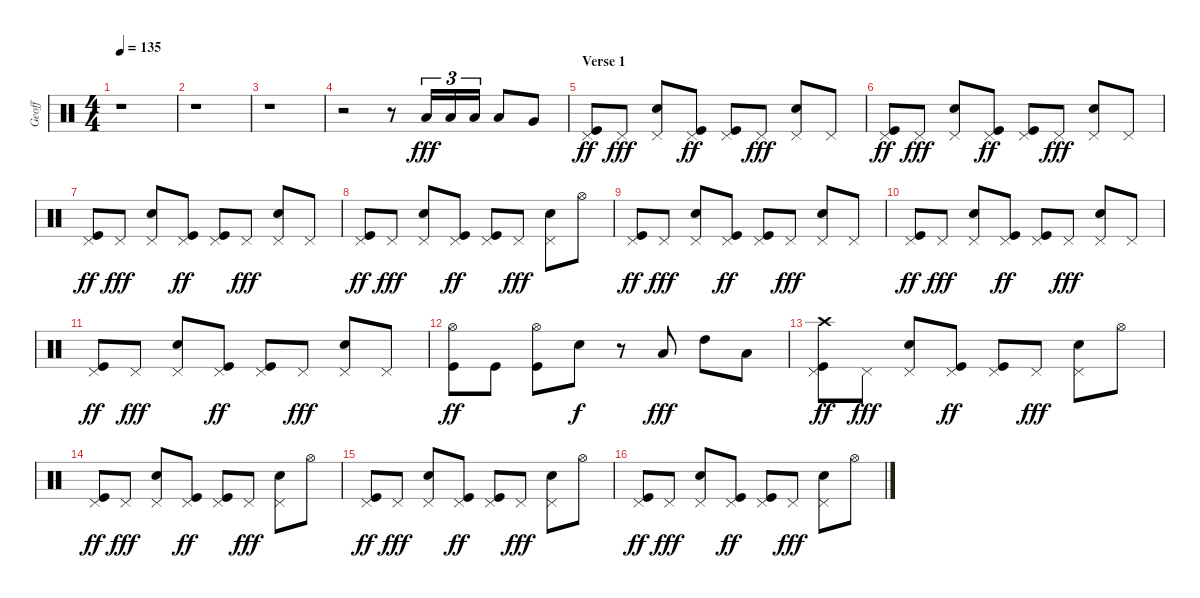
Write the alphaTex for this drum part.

\track ("Geoff" "Geoff") {instrument percussion}
\staff {score}
\articulation defaults
\ts (4 4)
\tempo 135
\clef neutral
\ks c
r.1{dy fff} |
r.1 |
r.1 |
r.2 r.8 "Low Tom (hit)".16{tu (3 2)} "Low Tom (hit)".16{tu (3 2)} "Low Tom (hit)".16{tu (3 2)} "Low Tom (hit)".8 "Very Low Tom (hit)".8 |
\section ("" "Verse 1")
("Pedal Hi-Hat (hit)" "Kick (hit)").8{dy ff} "Pedal Hi-Hat (hit)".8{dy fff} ("Pedal Hi-Hat (hit)" "Electric Snare (hit)").8 ("Pedal Hi-Hat (hit)" "Kick (hit)").8{dy ff} ("Pedal Hi-Hat (hit)" "Kick (hit)").8 "Pedal Hi-Hat (hit)".8{dy fff} ("Pedal Hi-Hat (hit)" "Electric Snare (hit)").8 "Pedal Hi-Hat (hit)".8 |
("Pedal Hi-Hat (hit)" "Kick (hit)").8{dy ff} "Pedal Hi-Hat (hit)".8{dy fff} ("Pedal Hi-Hat (hit)" "Electric Snare (hit)").8 ("Pedal Hi-Hat (hit)" "Kick (hit)").8{dy ff} ("Pedal Hi-Hat (hit)" "Kick (hit)").8 "Pedal Hi-Hat (hit)".8{dy fff} ("Pedal Hi-Hat (hit)" "Electric Snare (hit)").8 "Pedal Hi-Hat (hit)".8 |
("Pedal Hi-Hat (hit)" "Kick (hit)").8{dy ff} "Pedal Hi-Hat (hit)".8{dy fff} ("Pedal Hi-Hat (hit)" "Electric Snare (hit)").8 ("Pedal Hi-Hat (hit)" "Kick (hit)").8{dy ff} ("Pedal Hi-Hat (hit)" "Kick (hit)").8 "Pedal Hi-Hat (hit)".8{dy fff} ("Pedal Hi-Hat (hit)" "Electric Snare (hit)").8 "Pedal Hi-Hat (hit)".8 |
("Pedal Hi-Hat (hit)" "Kick (hit)").8{dy ff} "Pedal Hi-Hat (hit)".8{dy fff} ("Pedal Hi-Hat (hit)" "Electric Snare (hit)").8 ("Pedal Hi-Hat (hit)" "Kick (hit)").8{dy ff} ("Pedal Hi-Hat (hit)" "Kick (hit)").8 "Pedal Hi-Hat (hit)".8{dy fff} ("Pedal Hi-Hat (hit)" "Electric Snare (hit)").8 "Hi-Hat (open)".8 |
("Pedal Hi-Hat (hit)" "Kick (hit)").8{dy ff} "Pedal Hi-Hat (hit)".8{dy fff} ("Pedal Hi-Hat (hit)" "Electric Snare (hit)").8 ("Pedal Hi-Hat (hit)" "Kick (hit)").8{dy ff} ("Pedal Hi-Hat (hit)" "Kick (hit)").8 "Pedal Hi-Hat (hit)".8{dy fff} ("Pedal Hi-Hat (hit)" "Electric Snare (hit)").8 "Pedal Hi-Hat (hit)".8 |
("Pedal Hi-Hat (hit)" "Kick (hit)").8{dy ff} "Pedal Hi-Hat (hit)".8{dy fff} ("Pedal Hi-Hat (hit)" "Electric Snare (hit)").8 ("Pedal Hi-Hat (hit)" "Kick (hit)").8{dy ff} ("Pedal Hi-Hat (hit)" "Kick (hit)").8 "Pedal Hi-Hat (hit)".8{dy fff} ("Pedal Hi-Hat (hit)" "Electric Snare (hit)").8 "Pedal Hi-Hat (hit)".8 |
("Pedal Hi-Hat (hit)" "Kick (hit)").8{dy ff} "Pedal Hi-Hat (hit)".8{dy fff} ("Pedal Hi-Hat (hit)" "Electric Snare (hit)").8 ("Pedal Hi-Hat (hit)" "Kick (hit)").8{dy ff} ("Pedal Hi-Hat (hit)" "Kick (hit)").8 "Pedal Hi-Hat (hit)".8{dy fff} ("Pedal Hi-Hat (hit)" "Electric Snare (hit)").8 "Pedal Hi-Hat (hit)".8 |
("Hi-Hat (open)" "Kick (hit)").8{dy ff} "Kick (hit)".8 ("Hi-Hat (open)" "Kick (hit)").8 "Electric Snare (hit)".8{dy f} r.8 "Low Tom (hit)".8{dy fff} "High Tom (hit)".8 "Low Tom (hit)".8 |
("Crash high (hit)" "Pedal Hi-Hat (hit)" "Kick (hit)").8{dy ff} "Pedal Hi-Hat (hit)".8{dy fff} ("Pedal Hi-Hat (hit)" "Electric Snare (hit)").8 ("Pedal Hi-Hat (hit)" "Kick (hit)").8{dy ff} ("Pedal Hi-Hat (hit)" "Kick (hit)").8 "Pedal Hi-Hat (hit)".8{dy fff} ("Pedal Hi-Hat (hit)" "Electric Snare (hit)").8 "Hi-Hat (open)".8 |
("Pedal Hi-Hat (hit)" "Kick (hit)").8{dy ff} "Pedal Hi-Hat (hit)".8{dy fff} ("Pedal Hi-Hat (hit)" "Electric Snare (hit)").8 ("Pedal Hi-Hat (hit)" "Kick (hit)").8{dy ff} ("Pedal Hi-Hat (hit)" "Kick (hit)").8 "Pedal Hi-Hat (hit)".8{dy fff} ("Pedal Hi-Hat (hit)" "Electric Snare (hit)").8 "Hi-Hat (open)".8 |
("Pedal Hi-Hat (hit)" "Kick (hit)").8{dy ff} "Pedal Hi-Hat (hit)".8{dy fff} ("Pedal Hi-Hat (hit)" "Electric Snare (hit)").8 ("Pedal Hi-Hat (hit)" "Kick (hit)").8{dy ff} ("Pedal Hi-Hat (hit)" "Kick (hit)").8 "Pedal Hi-Hat (hit)".8{dy fff} ("Pedal Hi-Hat (hit)" "Electric Snare (hit)").8 "Hi-Hat (open)".8 |
("Pedal Hi-Hat (hit)" "Kick (hit)").8{dy ff} "Pedal Hi-Hat (hit)".8{dy fff} ("Pedal Hi-Hat (hit)" "Electric Snare (hit)").8 ("Pedal Hi-Hat (hit)" "Kick (hit)").8{dy ff} ("Pedal Hi-Hat (hit)" "Kick (hit)").8 "Pedal Hi-Hat (hit)".8{dy fff} ("Pedal Hi-Hat (hit)" "Electric Snare (hit)").8 "Hi-Hat (open)".8
